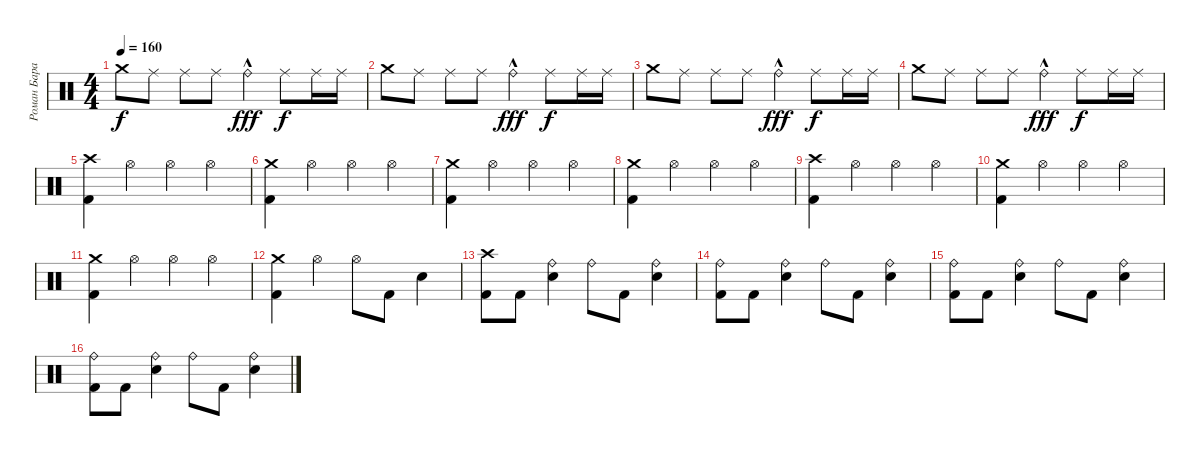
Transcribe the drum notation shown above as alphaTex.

\track ("Роман Баранюк" "Роман Бара") {instrument percussion}
\staff {score}
\articulation defaults
\ts (4 4)
\tempo 160
\clef neutral
\ks c "Crash medium (hit)".8{dy f} "Ride (middle)".8 "Ride (middle)".8 "Ride (middle)".8 "Ride (bell)"{hac}.4{dy fff} "Ride (middle)".8{dy f} "Ride (middle)".16 "Ride (middle)".16
|
"Crash medium (hit)".8 "Ride (middle)".8 "Ride (middle)".8 "Ride (middle)".8 "Ride (bell)"{hac}.4{dy fff} "Ride (middle)".8{dy f} "Ride (middle)".16 "Ride (middle)".16 |
"Crash medium (hit)".8 "Ride (middle)".8 "Ride (middle)".8 "Ride (middle)".8 "Ride (bell)"{hac}.4{dy fff} "Ride (middle)".8{dy f} "Ride (middle)".16 "Ride (middle)".16 |
"Crash medium (hit)".8 "Ride (middle)".8 "Ride (middle)".8 "Ride (middle)".8 "Ride (bell)"{hac}.4{dy fff} "Ride (middle)".8{dy f} "Ride (middle)".16 "Ride (middle)".16 |
("Crash high (hit)" "Kick (hit) 2").4 "Hi-Hat (open)".4 "Hi-Hat (open)".4 "Hi-Hat (open)".4 |
("Crash medium (hit)" "Kick (hit) 2").4 "Hi-Hat (open)".4 "Hi-Hat (open)".4 "Hi-Hat (open)".4 |
("Crash medium (hit)" "Kick (hit) 2").4 "Hi-Hat (open)".4 "Hi-Hat (open)".4 "Hi-Hat (open)".4 |
("Crash medium (hit)" "Kick (hit) 2").4 "Hi-Hat (open)".4 "Hi-Hat (open)".4 "Hi-Hat (open)".4 |
("Crash high (hit)" "Kick (hit) 2").4 "Hi-Hat (open)".4 "Hi-Hat (open)".4 "Hi-Hat (open)".4 |
("Crash medium (hit)" "Kick (hit) 2").4 "Hi-Hat (open)".4 "Hi-Hat (open)".4 "Hi-Hat (open)".4 |
("Crash medium (hit)" "Kick (hit) 2").4 "Hi-Hat (open)".4 "Hi-Hat (open)".4 "Hi-Hat (open)".4 |
("Crash medium (hit)" "Kick (hit) 2").4 "Hi-Hat (open)".4 "Hi-Hat (open)".8 "Kick (hit) 2".8 "Snare (hit) 2".4 |
("Crash high (hit)" "Kick (hit) 2").8 "Kick (hit) 2".8 ("Ride (bell)" "Snare (hit) 2").4 "Ride (bell)".8 "Kick (hit) 2".8 ("Ride (bell)" "Snare (hit) 2").4 |
("Ride (bell)" "Kick (hit) 2").8 "Kick (hit) 2".8 ("Ride (bell)" "Snare (hit) 2").4 "Ride (bell)".8 "Kick (hit) 2".8 ("Ride (bell)" "Snare (hit) 2").4 |
("Ride (bell)" "Kick (hit) 2").8 "Kick (hit) 2".8 ("Ride (bell)" "Snare (hit) 2").4 "Ride (bell)".8 "Kick (hit) 2".8 ("Ride (bell)" "Snare (hit) 2").4 |
("Ride (bell)" "Kick (hit) 2").8 "Kick (hit) 2".8 ("Ride (bell)" "Snare (hit) 2").4 "Ride (bell)".8 "Kick (hit) 2".8 ("Ride (bell)" "Snare (hit) 2").4
